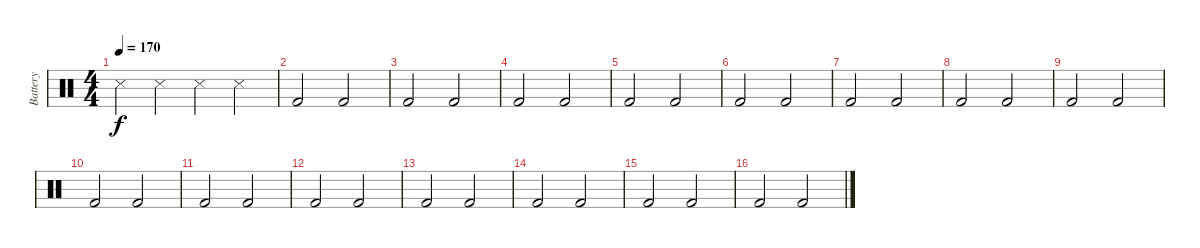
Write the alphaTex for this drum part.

\track ("Battery" "Battery") {instrument percussion}
\staff {score}
\articulation defaults
\ts (4 4)
\tempo 170
\clef neutral
\ks c "Metronome (hit)".4{dy f} "Metronome (hit)".4 "Metronome (hit)".4 "Metronome (hit)".4
|
"Kick (hit) 2".2 "Kick (hit) 2".2 |
"Kick (hit) 2".2 "Kick (hit) 2".2 |
"Kick (hit) 2".2 "Kick (hit) 2".2 |
"Kick (hit) 2".2 "Kick (hit) 2".2 |
"Kick (hit) 2".2 "Kick (hit) 2".2 |
"Kick (hit) 2".2 "Kick (hit) 2".2 |
"Kick (hit) 2".2 "Kick (hit) 2".2 |
"Kick (hit) 2".2 "Kick (hit) 2".2 |
"Kick (hit) 2".2 "Kick (hit) 2".2 |
"Kick (hit) 2".2 "Kick (hit) 2".2 |
"Kick (hit) 2".2 "Kick (hit) 2".2 |
"Kick (hit) 2".2 "Kick (hit) 2".2 |
"Kick (hit) 2".2 "Kick (hit) 2".2 |
"Kick (hit) 2".2 "Kick (hit) 2".2 |
"Kick (hit) 2".2 "Kick (hit) 2".2
